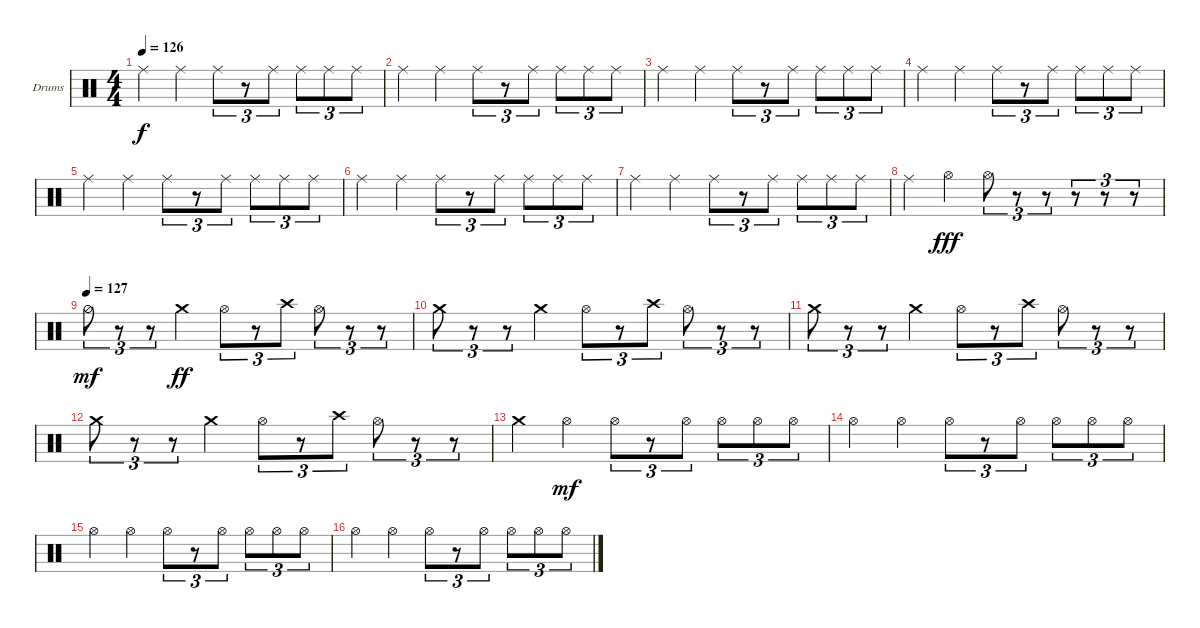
\defaultSystemsLayout 4
\bracketExtendMode groupsimilarinstruments
\firstSystemTrackNameOrientation horizontal
\otherSystemsTrackNameOrientation horizontal
\track ("Drumkit" "Drums") {instrument percussion}
\staff {score}
\articulation defaults
\ts (4 4)
\tempo 126
\clef neutral
\scale
0.333333
\ks c "Ride (middle)".4{dy f} "Ride (middle)".4 "Ride (middle)".8{tu (3 2)}
r.8{tu (3 2)} "Ride (middle)".8{tu (3 2)} "Ride (middle)".8{tu (3 2)} "Ride (middle)".8{tu (3 2)} "Ride (middle)".8{tu (3 2)} |
\scale
0.333333 "Ride (middle)".4 "Ride (middle)".4 "Ride (middle)".8{tu (3 2)} r.8{tu (3 2)} "Ride (middle)".8{tu (3 2)} "Ride (middle)".8{tu (3 2)} "Ride (middle)".8{tu (3 2)} "Ride (middle)".8{tu (3 2)} |
\scale
0.333333 "Ride (middle)".4 "Ride (middle)".4 "Ride (middle)".8{tu (3 2)} r.8{tu (3 2)} "Ride (middle)".8{tu (3 2)} "Ride (middle)".8{tu (3 2)} "Ride (middle)".8{tu (3 2)} "Ride (middle)".8{tu (3 2)} |
\scale
0.333333 "Ride (middle)".4 "Ride (middle)".4 "Ride (middle)".8{tu (3 2)} r.8{tu (3 2)} "Ride (middle)".8{tu (3 2)} "Ride (middle)".8{tu (3 2)} "Ride (middle)".8{tu (3 2)} "Ride (middle)".8{tu (3 2)} |
\scale
0.333333 "Ride (middle)".4 "Ride (middle)".4 "Ride (middle)".8{tu (3 2)} r.8{tu (3 2)} "Ride (middle)".8{tu (3 2)} "Ride (middle)".8{tu (3 2)} "Ride (middle)".8{tu (3 2)} "Ride (middle)".8{tu (3 2)} |
\scale
0.333333 "Ride (middle)".4 "Ride (middle)".4 "Ride (middle)".8{tu (3 2)} r.8{tu (3 2)} "Ride (middle)".8{tu (3 2)} "Ride (middle)".8{tu (3 2)} "Ride (middle)".8{tu (3 2)} "Ride (middle)".8{tu (3 2)} |
\scale
0.333333 "Ride (middle)".4 "Ride (middle)".4 "Ride (middle)".8{tu (3 2)} r.8{tu (3 2)} "Ride (middle)".8{tu (3 2)} "Ride (middle)".8{tu (3 2)} "Ride (middle)".8{tu (3 2)} "Ride (middle)".8{tu (3 2)} |
\scale
0.333333 "Ride (middle)".4 "Hi-Hat (open)".4{dy fff} "Hi-Hat (open)".8{tu (3 2)} r.8{tu (3 2)} r.8{tu (3 2)} r.8{tu (3 2)} r.8{tu (3 2)} r.8{tu (3 2)} |
\tempo 127
\scale
0.333333 "Hi-Hat (half)".8{tu (3 2) dy mf} r.8{tu (3 2)} r.8{tu (3 2)} "Crash medium (hit)".4{dy ff} "Hi-Hat (open)".8{tu (3 2)} r.8{tu (3 2)} "Crash high (hit)".8{tu (3 2)} "Hi-Hat (open)".8{tu (3 2)} r.8{tu (3 2)} r.8{tu (3 2)} |
\scale
0.333333 "Crash medium (hit)".8{tu (3 2)} r.8{tu (3 2)} r.8{tu (3 2)} "Crash medium (hit)".4 "Hi-Hat (open)".8{tu (3 2)} r.8{tu (3 2)} "Crash high (hit)".8{tu (3 2)} "Hi-Hat (open)".8{tu (3 2)} r.8{tu (3 2)} r.8{tu (3 2)} |
\scale
0.333333 "Crash medium (hit)".8{tu (3 2)} r.8{tu (3 2)} r.8{tu (3 2)} "Crash medium (hit)".4 "Hi-Hat (open)".8{tu (3 2)} r.8{tu (3 2)} "Crash high (hit)".8{tu (3 2)} "Hi-Hat (open)".8{tu (3 2)} r.8{tu (3 2)} r.8{tu (3 2)} |
\scale
0.333333 "Crash medium (hit)".8{tu (3 2)} r.8{tu (3 2)} r.8{tu (3 2)} "Crash medium (hit)".4 "Hi-Hat (open)".8{tu (3 2)} r.8{tu (3 2)} "Crash high (hit)".8{tu (3 2)} "Hi-Hat (open)".8{tu (3 2)} r.8{tu (3 2)} r.8{tu (3 2)} |
\scale
0.333333 "Crash medium (hit)".4 "Hi-Hat (open)".4{dy mf} "Hi-Hat (open)".8{tu (3 2)} r.8{tu (3 2)} "Hi-Hat (open)".8{tu (3 2)} "Hi-Hat (open)".8{tu (3 2)} "Hi-Hat (open)".8{tu (3 2)} "Hi-Hat (open)".8{tu (3 2)} |
\scale
0.333333 "Hi-Hat (open)".4 "Hi-Hat (open)".4 "Hi-Hat (open)".8{tu (3 2)} r.8{tu (3 2)} "Hi-Hat (open)".8{tu (3 2)} "Hi-Hat (open)".8{tu (3 2)} "Hi-Hat (open)".8{tu (3 2)} "Hi-Hat (open)".8{tu (3 2)} |
\scale
0.333333 "Hi-Hat (open)".4 "Hi-Hat (open)".4 "Hi-Hat (open)".8{tu (3 2)} r.8{tu (3 2)} "Hi-Hat (open)".8{tu (3 2)} "Hi-Hat (open)".8{tu (3 2)} "Hi-Hat (open)".8{tu (3 2)} "Hi-Hat (open)".8{tu (3 2)} |
\scale
0.333333 "Hi-Hat (open)".4 "Hi-Hat (open)".4 "Hi-Hat (open)".8{tu (3 2)} r.8{tu (3 2)} "Hi-Hat (open)".8{tu (3 2)} "Hi-Hat (open)".8{tu (3 2)} "Hi-Hat (open)".8{tu (3 2)} "Hi-Hat (open)".8{tu (3 2)}
